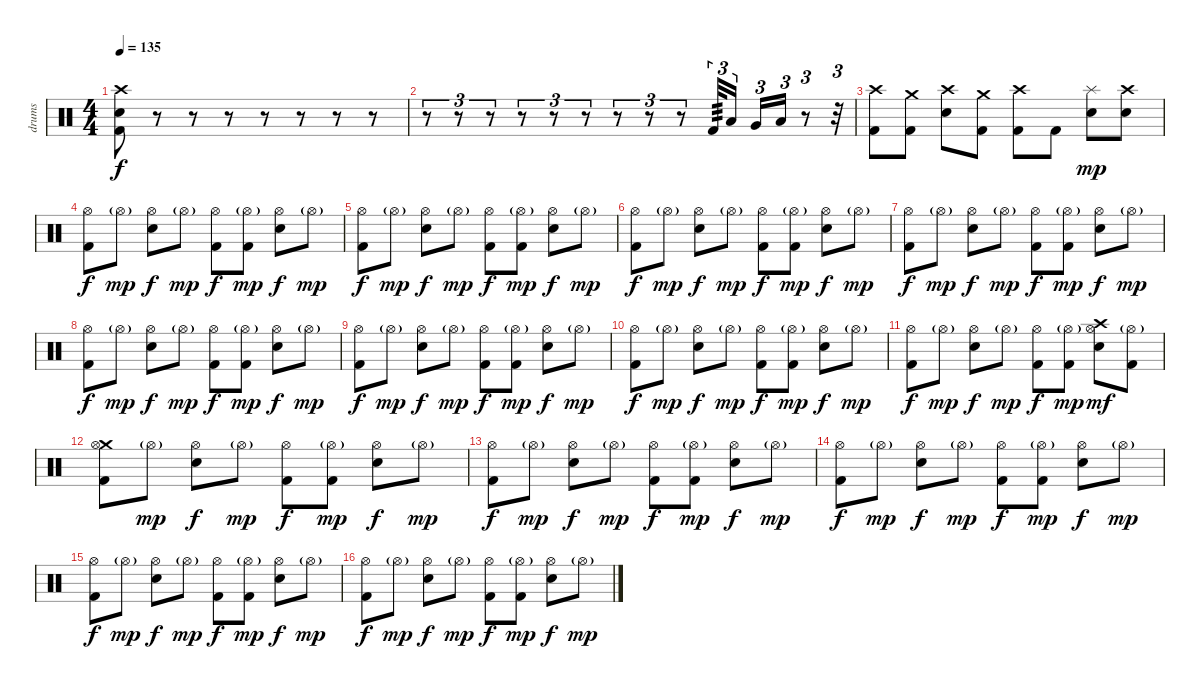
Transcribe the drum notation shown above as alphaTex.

\track ("drums" "drums") {instrument percussion}
\staff {score}
\articulation defaults
\ts (4 4)
\tempo 135
\clef neutral
\ks c
("Crash high (hit)" "Snare (hit) 2" "Kick (hit) 2").8{dy f} r.8 r.8 r.8 r.8 r.8 r.8 r.8 |
r.8{tu (3 2)} r.8{tu (3 2)} r.8{tu (3 2)} r.8{tu (3 2)} r.8{tu (3 2)} r.8{tu (3 2)} r.8{tu (3 2)} r.8{tu (3 2)} r.8{tu (3 2)} "Kick (hit) 2".32{tu (3 2) tp 3} "Low Tom (hit)".16{tu (3 2) beam splitsecondary} "Very Low Tom (hit)".16{tu (3 2)} "Low Floor Tom (hit)".16{tu (3 2)} r.8{tu (3 2)} r.32{tu (3 2)} |
("Crash high (hit)" "Kick (hit) 2").8 ("Crash medium (hit)" "Kick (hit) 2").8 ("Crash high (hit)" "Snare (hit) 2").8 ("Crash medium (hit)" "Kick (hit) 2").8 ("Crash high (hit)" "Kick (hit) 2").8 "Kick (hit) 2".8 ("Splash (hit)" "Snare (hit) 2").8{dy mp} ("Crash high (hit)" "Snare (hit) 2").8 |
("Hi-Hat (open)" "Kick (hit) 2").8{dy f} "Hi-Hat (open)"{g}.8{dy mp} ("Hi-Hat (open)" "Snare (hit) 2").8{dy f} "Hi-Hat (open)"{g}.8{dy mp} ("Hi-Hat (open)" "Kick (hit) 2").8{dy f} ("Hi-Hat (open)"{g} "Kick (hit) 2").8{dy mp} ("Hi-Hat (open)" "Snare (hit) 2").8{dy f} "Hi-Hat (open)"{g}.8{dy mp} |
("Hi-Hat (open)" "Kick (hit) 2").8{dy f} "Hi-Hat (open)"{g}.8{dy mp} ("Hi-Hat (open)" "Snare (hit) 2").8{dy f} "Hi-Hat (open)"{g}.8{dy mp} ("Hi-Hat (open)" "Kick (hit) 2").8{dy f} ("Hi-Hat (open)"{g} "Kick (hit) 2").8{dy mp} ("Hi-Hat (open)" "Snare (hit) 2").8{dy f} "Hi-Hat (open)"{g}.8{dy mp} |
("Hi-Hat (open)" "Kick (hit) 2").8{dy f} "Hi-Hat (open)"{g}.8{dy mp} ("Hi-Hat (open)" "Snare (hit) 2").8{dy f} "Hi-Hat (open)"{g}.8{dy mp} ("Hi-Hat (open)" "Kick (hit) 2").8{dy f} ("Hi-Hat (open)"{g} "Kick (hit) 2").8{dy mp} ("Hi-Hat (open)" "Snare (hit) 2").8{dy f} "Hi-Hat (open)"{g}.8{dy mp} |
("Hi-Hat (open)" "Kick (hit) 2").8{dy f} "Hi-Hat (open)"{g}.8{dy mp} ("Hi-Hat (open)" "Snare (hit) 2").8{dy f} "Hi-Hat (open)"{g}.8{dy mp} ("Hi-Hat (open)" "Kick (hit) 2").8{dy f} ("Hi-Hat (open)"{g} "Kick (hit) 2").8{dy mp} ("Hi-Hat (open)" "Snare (hit) 2").8{dy f} "Hi-Hat (open)"{g}.8{dy mp} |
("Hi-Hat (open)" "Kick (hit) 2").8{dy f} "Hi-Hat (open)"{g}.8{dy mp} ("Hi-Hat (open)" "Snare (hit) 2").8{dy f} "Hi-Hat (open)"{g}.8{dy mp} ("Hi-Hat (open)" "Kick (hit) 2").8{dy f} ("Hi-Hat (open)"{g} "Kick (hit) 2").8{dy mp} ("Hi-Hat (open)" "Snare (hit) 2").8{dy f} "Hi-Hat (open)"{g}.8{dy mp} |
("Hi-Hat (open)" "Kick (hit) 2").8{dy f} "Hi-Hat (open)"{g}.8{dy mp} ("Hi-Hat (open)" "Snare (hit) 2").8{dy f} "Hi-Hat (open)"{g}.8{dy mp} ("Hi-Hat (open)" "Kick (hit) 2").8{dy f} ("Hi-Hat (open)"{g} "Kick (hit) 2").8{dy mp} ("Hi-Hat (open)" "Snare (hit) 2").8{dy f} "Hi-Hat (open)"{g}.8{dy mp} |
("Hi-Hat (open)" "Kick (hit) 2").8{dy f} "Hi-Hat (open)"{g}.8{dy mp} ("Hi-Hat (open)" "Snare (hit) 2").8{dy f} "Hi-Hat (open)"{g}.8{dy mp} ("Hi-Hat (open)" "Kick (hit) 2").8{dy f} ("Hi-Hat (open)"{g} "Kick (hit) 2").8{dy mp} ("Hi-Hat (open)" "Snare (hit) 2").8{dy f} "Hi-Hat (open)"{g}.8{dy mp} |
("Hi-Hat (open)" "Kick (hit) 2").8{dy f} "Hi-Hat (open)"{g}.8{dy mp} ("Hi-Hat (open)" "Snare (hit) 2").8{dy f} "Hi-Hat (open)"{g}.8{dy mp} ("Hi-Hat (open)" "Kick (hit) 2").8{dy f} ("Hi-Hat (open)"{g} "Kick (hit) 2").8{dy mp} ("Crash high (hit)" "Hi-Hat (open)" "Snare (hit) 2").8{dy mf} ("Hi-Hat (open)"{g} "Kick (hit) 2").8 |
("Crash medium (hit)" "Hi-Hat (open)" "Kick (hit) 2").8 "Hi-Hat (open)"{g}.8{dy mp} ("Hi-Hat (open)" "Snare (hit) 2").8{dy f} "Hi-Hat (open)"{g}.8{dy mp} ("Hi-Hat (open)" "Kick (hit) 2").8{dy f} ("Hi-Hat (open)"{g} "Kick (hit) 2").8{dy mp} ("Hi-Hat (open)" "Snare (hit) 2").8{dy f} "Hi-Hat (open)"{g}.8{dy mp} |
("Hi-Hat (open)" "Kick (hit) 2").8{dy f} "Hi-Hat (open)"{g}.8{dy mp} ("Hi-Hat (open)" "Snare (hit) 2").8{dy f} "Hi-Hat (open)"{g}.8{dy mp} ("Hi-Hat (open)" "Kick (hit) 2").8{dy f} ("Hi-Hat (open)"{g} "Kick (hit) 2").8{dy mp} ("Hi-Hat (open)" "Snare (hit) 2").8{dy f} "Hi-Hat (open)"{g}.8{dy mp} |
("Hi-Hat (open)" "Kick (hit) 2").8{dy f} "Hi-Hat (open)"{g}.8{dy mp} ("Hi-Hat (open)" "Snare (hit) 2").8{dy f} "Hi-Hat (open)"{g}.8{dy mp} ("Hi-Hat (open)" "Kick (hit) 2").8{dy f} ("Hi-Hat (open)"{g} "Kick (hit) 2").8{dy mp} ("Hi-Hat (open)" "Snare (hit) 2").8{dy f} "Hi-Hat (open)"{g}.8{dy mp} |
("Hi-Hat (open)" "Kick (hit) 2").8{dy f} "Hi-Hat (open)"{g}.8{dy mp} ("Hi-Hat (open)" "Snare (hit) 2").8{dy f} "Hi-Hat (open)"{g}.8{dy mp} ("Hi-Hat (open)" "Kick (hit) 2").8{dy f} ("Hi-Hat (open)"{g} "Kick (hit) 2").8{dy mp} ("Hi-Hat (open)" "Snare (hit) 2").8{dy f} "Hi-Hat (open)"{g}.8{dy mp} |
("Hi-Hat (open)" "Kick (hit) 2").8{dy f} "Hi-Hat (open)"{g}.8{dy mp} ("Hi-Hat (open)" "Snare (hit) 2").8{dy f} "Hi-Hat (open)"{g}.8{dy mp} ("Hi-Hat (open)" "Kick (hit) 2").8{dy f} ("Hi-Hat (open)"{g} "Kick (hit) 2").8{dy mp} ("Hi-Hat (open)" "Snare (hit) 2").8{dy f} "Hi-Hat (open)"{g}.8{dy mp}
